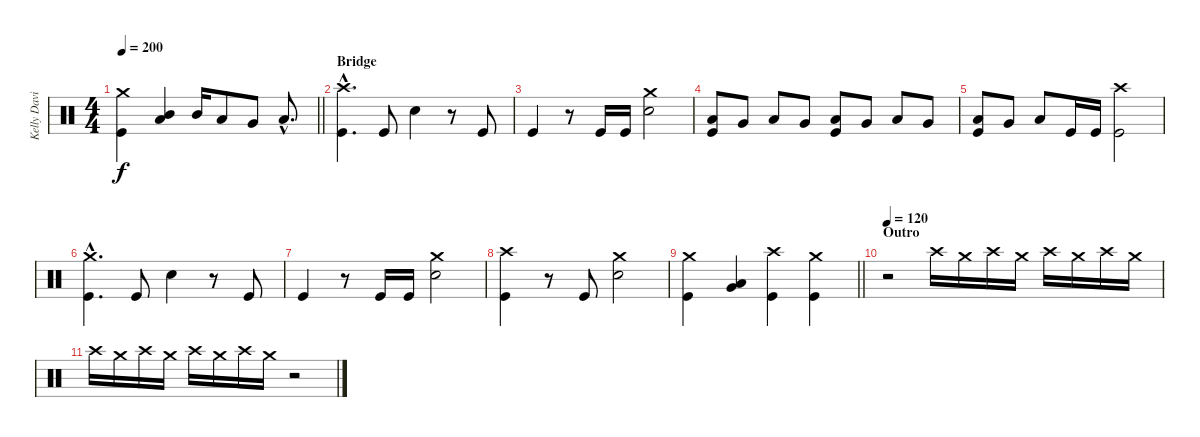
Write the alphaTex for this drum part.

\track ("Kelly David Smith" "Kelly Davi") {instrument percussion}
\staff {score}
\articulation defaults
\ts (4 4)
\tempo 200
\clef neutral
\barLineRight lightlight
\ks c
("Crash medium (hit)" "Kick (hit)").4{dy f} ("Mid Tom (hit)" "Low Tom (hit)").4 "Mid Tom (hit)".16 "Low Tom (hit)".8 "Very Low Tom (hit)".8 "Low Floor Tom (hit)"{hac}.8{d} |
\section ("" "Bridge")
("Crash high (hit)"{hac} "Kick (hit)"{hac}).4{d} "Kick (hit)".8 "Electric Snare (hit)".4 r.8 "Kick (hit)".8 |
"Kick (hit)".4 r.8 "Kick (hit)".16 "Kick (hit)".16 ("Crash medium (hit)" "Electric Snare (hit)").2 |
("Low Tom (hit)" "Kick (hit)").8 "Very Low Tom (hit)".8 "Low Floor Tom (hit)".8 "Very Low Tom (hit)".8 ("Low Tom (hit)" "Kick (hit)").8 "Very Low Tom (hit)".8 "Low Floor Tom (hit)".8 "Very Low Tom (hit)".8 |
("Low Floor Tom (hit)" "Kick (hit)").8 "Very Low Tom (hit)".8 "Low Tom (hit)".8 "Kick (hit)".16 "Kick (hit)".16 ("Crash high (hit)" "Kick (hit)").2 |
("Crash medium (hit)"{hac} "Kick (hit)"{hac}).4{d} "Kick (hit)".8 "Electric Snare (hit)".4 r.8 "Kick (hit)".8 |
"Kick (hit)".4 r.8 "Kick (hit)".16 "Kick (hit)".16 ("Crash medium (hit)" "Electric Snare (hit)").2 |
("Crash high (hit)" "Kick (hit)").4 r.8 "Kick (hit)".8 ("Crash medium (hit)" "Electric Snare (hit)").2 |
\barLineRight lightlight
("Crash medium (hit)" "Kick (hit)").4 ("Low Tom (hit)" "Very Low Tom (hit)").4 ("Crash high (hit)" "Kick (hit)").4 ("Crash medium (hit)" "Kick (hit)").4 |
\section ("" "Outro")
\tempo 120
r.2 "Crash high (hit)".16 "Crash medium (hit)".16 "Crash high (hit)".16 "Crash medium (hit)".16 "Crash high (hit)".16 "Crash medium (hit)".16 "Crash high (hit)".16 "Crash medium (hit)".16 |
"Crash high (hit)".16 "Crash medium (hit)".16 "Crash high (hit)".16 "Crash medium (hit)".16 "Crash high (hit)".16 "Crash medium (hit)".16 "Crash high (hit)".16 "Crash medium (hit)".16 r.2
